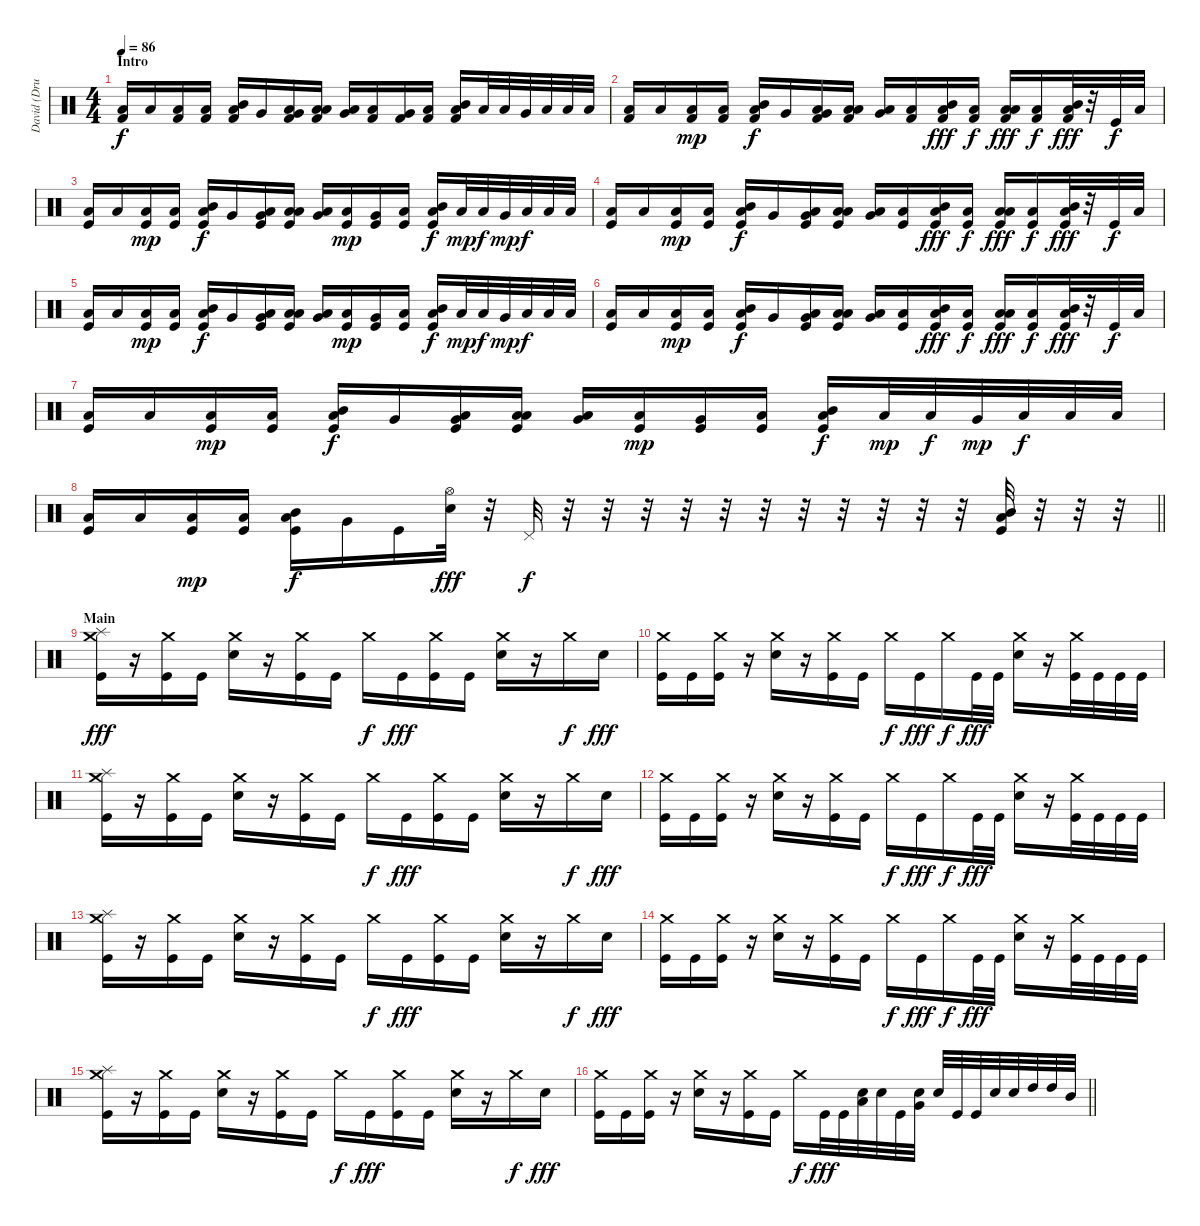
\track ("David (Drums)" "David (Dru") {instrument percussion}
\staff {score}
\articulation defaults
\ts (4 4)
\section ("" "Intro")
\tempo 86
\clef neutral
\ks c
("Kick (hit) 2" "Low Floor Tom (hit)").16{dy f} "Low Tom (hit)".16 ("Kick (hit) 2" "Low Floor Tom (hit)").16 ("Kick (hit) 2" "Low Floor Tom (hit)").16 ("Kick (hit) 2" "Low Floor Tom (hit)" "Mid Tom (hit)").16 "Very Low Tom (hit)".16 ("Kick (hit) 2" "Low Floor Tom (hit)" "Very Low Tom (hit)").16 ("Kick (hit) 2" "Low Floor Tom (hit)" "Low Tom (hit)").16 ("Low Floor Tom (hit)" "Very Low Tom (hit)").16 ("Kick (hit) 2" "Low Floor Tom (hit)").16 ("Kick (hit) 2" "Very Low Tom (hit)").16 ("Kick (hit) 2" "Low Tom (hit)").16 ("Kick (hit) 2" "Low Floor Tom (hit)" "Mid Tom (hit)").16 "Low Floor Tom (hit)".32 "Low Tom (hit)".32 "Very Low Tom (hit)".32 "Low Floor Tom (hit)".32 "Low Floor Tom (hit)".32 "Low Tom (hit)".32 |
("Kick (hit) 2" "Low Floor Tom (hit)").16 "Low Tom (hit)".16 ("Kick (hit) 2" "Low Floor Tom (hit)").16{dy mp} ("Kick (hit) 2" "Low Floor Tom (hit)").16 ("Kick (hit) 2" "Low Floor Tom (hit)" "Mid Tom (hit)").16{dy f} "Very Low Tom (hit)".16 ("Kick (hit) 2" "Low Floor Tom (hit)" "Very Low Tom (hit)").16 ("Kick (hit) 2" "Low Floor Tom (hit)" "Low Tom (hit)").16 ("Low Floor Tom (hit)" "Very Low Tom (hit)").16 ("Kick (hit) 2" "Low Floor Tom (hit)").16 ("Kick (hit) 2" "Mid Tom (hit)" "Low Floor Tom (hit)").16{dy fff} ("Kick (hit) 2" "Low Floor Tom (hit)").16{dy f} ("Kick (hit) 2" "Low Tom (hit)" "Low Floor Tom (hit)").16{dy fff} ("Kick (hit) 2" "Low Floor Tom (hit)").16{dy f} ("Kick (hit) 2" "Mid Tom (hit)" "Low Floor Tom (hit)").32{dy fff} r.32 "Kick (hit)".32{dy f} "Low Floor Tom (hit)".32 |
("Kick (hit)" "Low Floor Tom (hit)").16 "Low Tom (hit)".16 ("Kick (hit)" "Low Floor Tom (hit)").16{dy mp} ("Kick (hit)" "Low Floor Tom (hit)").16 ("Kick (hit)" "Low Floor Tom (hit)" "Mid Tom (hit)").16{dy f} "Very Low Tom (hit)".16 ("Kick (hit)" "Low Floor Tom (hit)" "Very Low Tom (hit)").16 ("Kick (hit)" "Low Floor Tom (hit)" "Low Tom (hit)").16 ("Low Floor Tom (hit)" "Very Low Tom (hit)").16 ("Kick (hit)" "Low Floor Tom (hit)").16{dy mp} ("Kick (hit)" "Very Low Tom (hit)").16 ("Kick (hit)" "Low Tom (hit)").16 ("Kick (hit)" "Low Floor Tom (hit)" "Mid Tom (hit)").16{dy f} "Low Floor Tom (hit)".32{dy mp} "Low Tom (hit)".32{dy f} "Very Low Tom (hit)".32{dy mp} "Low Floor Tom (hit)".32{dy f} "Low Floor Tom (hit)".32 "Low Tom (hit)".32 |
("Kick (hit)" "Low Floor Tom (hit)").16 "Low Tom (hit)".16 ("Kick (hit)" "Low Floor Tom (hit)").16{dy mp} ("Kick (hit)" "Low Floor Tom (hit)").16 ("Kick (hit)" "Low Floor Tom (hit)" "Mid Tom (hit)").16{dy f} "Very Low Tom (hit)".16 ("Kick (hit)" "Low Floor Tom (hit)" "Very Low Tom (hit)").16 ("Kick (hit)" "Low Floor Tom (hit)" "Low Tom (hit)").16 ("Low Floor Tom (hit)" "Very Low Tom (hit)").16 ("Kick (hit)" "Low Floor Tom (hit)").16 ("Kick (hit)" "Mid Tom (hit)" "Low Floor Tom (hit)").16{dy fff} ("Kick (hit)" "Low Floor Tom (hit)").16{dy f} ("Kick (hit)" "Low Tom (hit)" "Low Floor Tom (hit)").16{dy fff} ("Kick (hit)" "Low Floor Tom (hit)").16{dy f} ("Kick (hit)" "Mid Tom (hit)" "Low Floor Tom (hit)").32{dy fff} r.32 "Kick (hit)".32{dy f} "Low Floor Tom (hit)".32 |
("Kick (hit)" "Low Floor Tom (hit)").16 "Low Tom (hit)".16 ("Kick (hit)" "Low Floor Tom (hit)").16{dy mp} ("Kick (hit)" "Low Floor Tom (hit)").16 ("Kick (hit)" "Low Floor Tom (hit)" "Mid Tom (hit)").16{dy f} "Very Low Tom (hit)".16 ("Kick (hit)" "Low Floor Tom (hit)" "Very Low Tom (hit)").16 ("Kick (hit)" "Low Floor Tom (hit)" "Low Tom (hit)").16 ("Low Floor Tom (hit)" "Very Low Tom (hit)").16 ("Kick (hit)" "Low Floor Tom (hit)").16{dy mp} ("Kick (hit)" "Very Low Tom (hit)").16 ("Kick (hit)" "Low Tom (hit)").16 ("Kick (hit)" "Low Floor Tom (hit)" "Mid Tom (hit)").16{dy f} "Low Floor Tom (hit)".32{dy mp} "Low Tom (hit)".32{dy f} "Very Low Tom (hit)".32{dy mp} "Low Floor Tom (hit)".32{dy f} "Low Floor Tom (hit)".32 "Low Tom (hit)".32 |
("Kick (hit)" "Low Floor Tom (hit)").16 "Low Tom (hit)".16 ("Kick (hit)" "Low Floor Tom (hit)").16{dy mp} ("Kick (hit)" "Low Floor Tom (hit)").16 ("Kick (hit)" "Low Floor Tom (hit)" "Mid Tom (hit)").16{dy f} "Very Low Tom (hit)".16 ("Kick (hit)" "Low Floor Tom (hit)" "Very Low Tom (hit)").16 ("Kick (hit)" "Low Floor Tom (hit)" "Low Tom (hit)").16 ("Low Floor Tom (hit)" "Very Low Tom (hit)").16 ("Kick (hit)" "Low Floor Tom (hit)").16 ("Kick (hit)" "Mid Tom (hit)" "Low Floor Tom (hit)").16{dy fff} ("Kick (hit)" "Low Floor Tom (hit)").16{dy f} ("Kick (hit)" "Low Tom (hit)" "Low Floor Tom (hit)").16{dy fff} ("Kick (hit)" "Low Floor Tom (hit)").16{dy f} ("Kick (hit)" "Mid Tom (hit)" "Low Floor Tom (hit)").32{dy fff} r.32 "Kick (hit)".32{dy f} "Low Floor Tom (hit)".32 |
("Kick (hit)" "Low Floor Tom (hit)").16 "Low Tom (hit)".16 ("Kick (hit)" "Low Floor Tom (hit)").16{dy mp} ("Kick (hit)" "Low Floor Tom (hit)").16 ("Kick (hit)" "Low Floor Tom (hit)" "Mid Tom (hit)").16{dy f} "Very Low Tom (hit)".16 ("Kick (hit)" "Low Floor Tom (hit)" "Very Low Tom (hit)").16 ("Kick (hit)" "Low Floor Tom (hit)" "Low Tom (hit)").16 ("Low Floor Tom (hit)" "Very Low Tom (hit)").16 ("Kick (hit)" "Low Floor Tom (hit)").16{dy mp} ("Kick (hit)" "Very Low Tom (hit)").16 ("Kick (hit)" "Low Tom (hit)").16 ("Kick (hit)" "Low Floor Tom (hit)" "Mid Tom (hit)").16{dy f} "Low Floor Tom (hit)".32{dy mp} "Low Tom (hit)".32{dy f} "Very Low Tom (hit)".32{dy mp} "Low Floor Tom (hit)".32{dy f} "Low Floor Tom (hit)".32 "Low Tom (hit)".32 |
\barLineRight lightlight
("Kick (hit)" "Low Floor Tom (hit)").16 "Low Tom (hit)".16 ("Kick (hit)" "Low Floor Tom (hit)").16{dy mp} ("Kick (hit)" "Low Floor Tom (hit)").16 ("Kick (hit)" "Low Floor Tom (hit)" "Mid Tom (hit)").16{dy f} "Very Low Tom (hit)".16 "Kick (hit)".16 ("Electric Snare (hit)" "Hi-Hat (open)").32{dy fff} r.32 "Pedal Hi-Hat (hit)".32{dy f} r.32 r.32 r.32 r.32 r.32 r.32 r.32 r.32 r.32 r.32 r.32 ("Mid Tom (hit)" "Low Floor Tom (hit)" "Kick (hit)").32 r.32 r.32 r.32 |
\section ("" "Main")
("Splash (hit)" "Crash medium (hit)" "Kick (hit)").16{dy fff} r.16 ("Crash medium (hit)" "Kick (hit)").16 "Kick (hit)".16 ("Crash medium (hit)" "Electric Snare (hit)").16 r.16 ("Crash medium (hit)" "Kick (hit)").16 "Kick (hit)".16 "Crash medium (hit)".16{dy f} "Kick (hit)".16{dy fff} ("Crash medium (hit)" "Kick (hit)").16 "Kick (hit)".16 ("Crash medium (hit)" "Electric Snare (hit)").16 r.16 "Crash medium (hit)".16{dy f} "Electric Snare (hit)".16{dy fff} |
("Crash medium (hit)" "Kick (hit)").16 "Kick (hit)".16 ("Crash medium (hit)" "Kick (hit)").16 r.16 ("Crash medium (hit)" "Electric Snare (hit)").16 r.16 ("Crash medium (hit)" "Kick (hit)").16 "Kick (hit)".16 "Crash medium (hit)".16{dy f} "Kick (hit)".16{dy fff} "Crash medium (hit)".16{dy f} "Kick (hit)".32{dy fff} "Kick (hit)".32 ("Crash medium (hit)" "Electric Snare (hit)").16 r.16 ("Crash medium (hit)" "Kick (hit)").32 "Kick (hit)".32 "Kick (hit)".32 "Kick (hit)".32 |
("Splash (hit)" "Crash medium (hit)" "Kick (hit)").16 r.16 ("Crash medium (hit)" "Kick (hit)").16 "Kick (hit)".16 ("Crash medium (hit)" "Electric Snare (hit)").16 r.16 ("Crash medium (hit)" "Kick (hit)").16 "Kick (hit)".16 "Crash medium (hit)".16{dy f} "Kick (hit)".16{dy fff} ("Crash medium (hit)" "Kick (hit)").16 "Kick (hit)".16 ("Crash medium (hit)" "Electric Snare (hit)").16 r.16 "Crash medium (hit)".16{dy f} "Electric Snare (hit)".16{dy fff} |
("Crash medium (hit)" "Kick (hit)").16 "Kick (hit)".16 ("Crash medium (hit)" "Kick (hit)").16 r.16 ("Crash medium (hit)" "Electric Snare (hit)").16 r.16 ("Crash medium (hit)" "Kick (hit)").16 "Kick (hit)".16 "Crash medium (hit)".16{dy f} "Kick (hit)".16{dy fff} "Crash medium (hit)".16{dy f} "Kick (hit)".32{dy fff} "Kick (hit)".32 ("Crash medium (hit)" "Electric Snare (hit)").16 r.16 ("Crash medium (hit)" "Kick (hit)").32 "Kick (hit)".32 "Kick (hit)".32 "Kick (hit)".32 |
("Splash (hit)" "Crash medium (hit)" "Kick (hit)").16 r.16 ("Crash medium (hit)" "Kick (hit)").16 "Kick (hit)".16 ("Crash medium (hit)" "Electric Snare (hit)").16 r.16 ("Crash medium (hit)" "Kick (hit)").16 "Kick (hit)".16 "Crash medium (hit)".16{dy f} "Kick (hit)".16{dy fff} ("Crash medium (hit)" "Kick (hit)").16 "Kick (hit)".16 ("Crash medium (hit)" "Electric Snare (hit)").16 r.16 "Crash medium (hit)".16{dy f} "Electric Snare (hit)".16{dy fff} |
("Crash medium (hit)" "Kick (hit)").16 "Kick (hit)".16 ("Crash medium (hit)" "Kick (hit)").16 r.16 ("Crash medium (hit)" "Electric Snare (hit)").16 r.16 ("Crash medium (hit)" "Kick (hit)").16 "Kick (hit)".16 "Crash medium (hit)".16{dy f} "Kick (hit)".16{dy fff} "Crash medium (hit)".16{dy f} "Kick (hit)".32{dy fff} "Kick (hit)".32 ("Crash medium (hit)" "Electric Snare (hit)").16 r.16 ("Crash medium (hit)" "Kick (hit)").32 "Kick (hit)".32 "Kick (hit)".32 "Kick (hit)".32 |
("Splash (hit)" "Crash medium (hit)" "Kick (hit)").16 r.16 ("Crash medium (hit)" "Kick (hit)").16 "Kick (hit)".16 ("Crash medium (hit)" "Electric Snare (hit)").16 r.16 ("Crash medium (hit)" "Kick (hit)").16 "Kick (hit)".16 "Crash medium (hit)".16{dy f} "Kick (hit)".16{dy fff} ("Crash medium (hit)" "Kick (hit)").16 "Kick (hit)".16 ("Crash medium (hit)" "Electric Snare (hit)").16 r.16 "Crash medium (hit)".16{dy f} "Electric Snare (hit)".16{dy fff} |
\barLineRight lightlight
("Crash medium (hit)" "Kick (hit)").16 "Kick (hit)".16 ("Crash medium (hit)" "Kick (hit)").16 r.16 ("Crash medium (hit)" "Electric Snare (hit)").16 r.16 ("Crash medium (hit)" "Kick (hit)").16 "Kick (hit)".16 "Crash medium (hit)".16{dy f} "Kick (hit)".32{dy fff} "Kick (hit)".32 ("Low Floor Tom (hit)" "Electric Snare (hit)").32 "Electric Snare (hit)".32 "Kick (hit)".32 ("Very Low Tom (hit)" "Electric Snare (hit)").32 "Electric Snare (hit)".32 "Kick (hit)".32 "Kick (hit)".32 "Electric Snare (hit)".32 "Electric Snare (hit)".32 "High Tom (hit)".32 "High Tom (hit)".32 "Mid Tom (hit)".32
